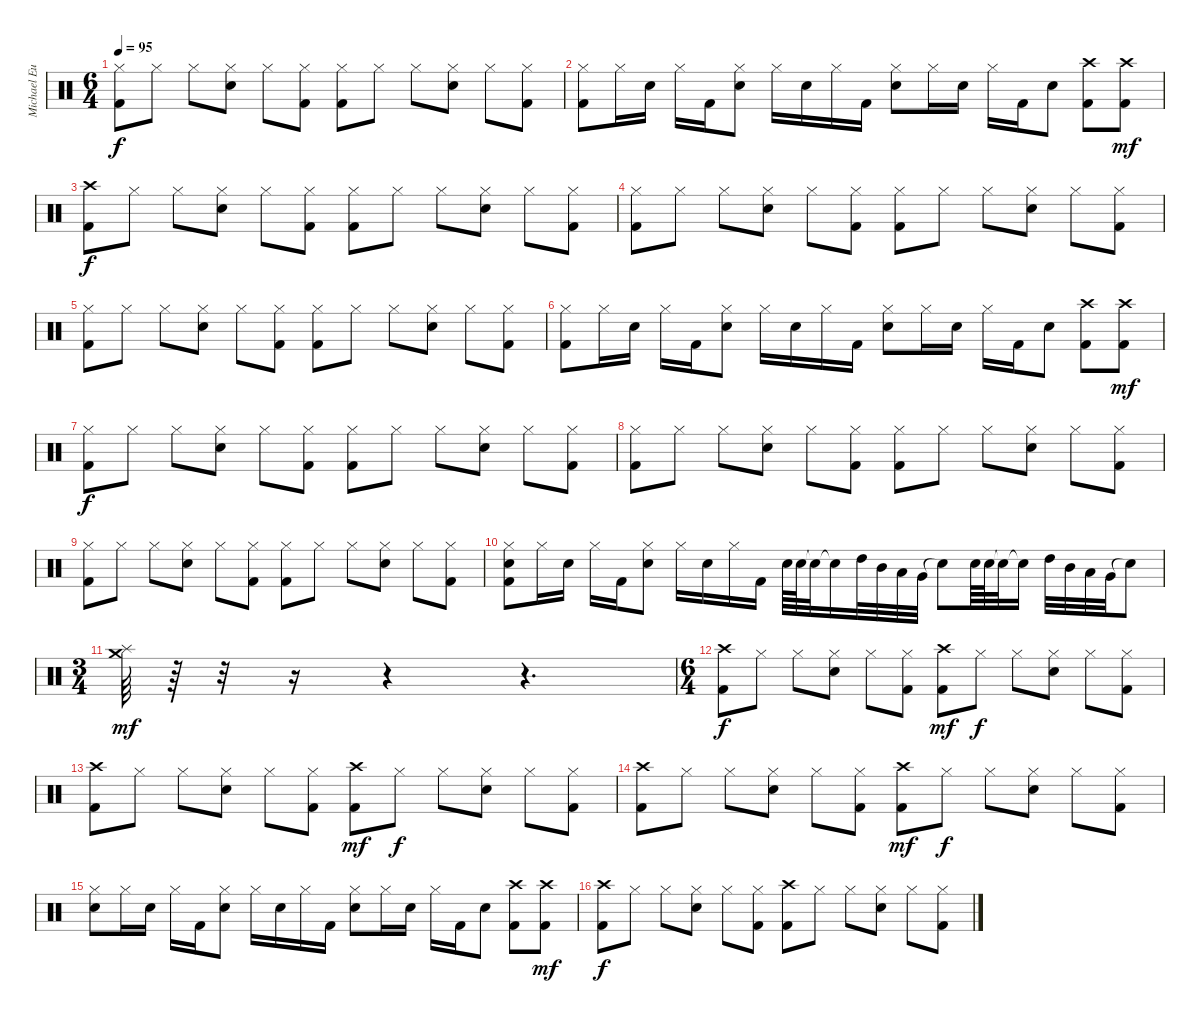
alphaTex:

\track ("Michael Eurich" "Michael Eu") {instrument percussion}
\staff {score}
\articulation defaults
\ts (6 4)
\tempo 95
\clef neutral
\ks c
("Kick (hit) 2" "Hi-Hat (closed)").8{dy f} "Hi-Hat (closed)".8 "Hi-Hat (closed)".8 ("Hi-Hat (closed)" "Snare (hit) 2").8 "Hi-Hat (closed)".8 ("Kick (hit) 2" "Hi-Hat (closed)").8 ("Kick (hit) 2" "Hi-Hat (closed)").8 "Hi-Hat (closed)".8 "Hi-Hat (closed)".8 ("Hi-Hat (closed)" "Snare (hit) 2").8 "Hi-Hat (closed)".8 ("Kick (hit) 2" "Hi-Hat (closed)").8 |
("Kick (hit) 2" "Hi-Hat (closed)").8 "Hi-Hat (closed)".16 "Snare (hit) 2".16 "Hi-Hat (closed)".16 "Kick (hit) 2".16 ("Hi-Hat (closed)" "Snare (hit) 2").8 "Hi-Hat (closed)".16 "Snare (hit) 2".16 "Hi-Hat (closed)".16 "Kick (hit) 2".16 ("Hi-Hat (closed)" "Snare (hit) 2").8 "Hi-Hat (closed)".16 "Snare (hit) 2".16 "Hi-Hat (closed)".16 "Kick (hit) 2".16 "Snare (hit) 2".8 ("Kick (hit) 2" "Crash high (hit)").8 ("Kick (hit) 2" "Crash high (hit)").8{dy mf} |
("Kick (hit) 2" "Crash high (hit)").8{dy f} "Hi-Hat (closed)".8 "Hi-Hat (closed)".8 ("Hi-Hat (closed)" "Snare (hit) 2").8 "Hi-Hat (closed)".8 ("Kick (hit) 2" "Hi-Hat (closed)").8 ("Kick (hit) 2" "Hi-Hat (closed)").8 "Hi-Hat (closed)".8 "Hi-Hat (closed)".8 ("Hi-Hat (closed)" "Snare (hit) 2").8 "Hi-Hat (closed)".8 ("Kick (hit) 2" "Hi-Hat (closed)").8 |
("Kick (hit) 2" "Hi-Hat (closed)").8 "Hi-Hat (closed)".8 "Hi-Hat (closed)".8 ("Hi-Hat (closed)" "Snare (hit) 2").8 "Hi-Hat (closed)".8 ("Kick (hit) 2" "Hi-Hat (closed)").8 ("Kick (hit) 2" "Hi-Hat (closed)").8 "Hi-Hat (closed)".8 "Hi-Hat (closed)".8 ("Hi-Hat (closed)" "Snare (hit) 2").8 "Hi-Hat (closed)".8 ("Kick (hit) 2" "Hi-Hat (closed)").8 |
("Kick (hit) 2" "Hi-Hat (closed)").8 "Hi-Hat (closed)".8 "Hi-Hat (closed)".8 ("Hi-Hat (closed)" "Snare (hit) 2").8 "Hi-Hat (closed)".8 ("Kick (hit) 2" "Hi-Hat (closed)").8 ("Kick (hit) 2" "Hi-Hat (closed)").8 "Hi-Hat (closed)".8 "Hi-Hat (closed)".8 ("Hi-Hat (closed)" "Snare (hit) 2").8 "Hi-Hat (closed)".8 ("Kick (hit) 2" "Hi-Hat (closed)").8 |
("Kick (hit) 2" "Hi-Hat (closed)").8 "Hi-Hat (closed)".16 "Snare (hit) 2".16 "Hi-Hat (closed)".16 "Kick (hit) 2".16 ("Hi-Hat (closed)" "Snare (hit) 2").8 "Hi-Hat (closed)".16 "Snare (hit) 2".16 "Hi-Hat (closed)".16 "Kick (hit) 2".16 ("Hi-Hat (closed)" "Snare (hit) 2").8 "Hi-Hat (closed)".16 "Snare (hit) 2".16 "Hi-Hat (closed)".16 "Kick (hit) 2".16 "Snare (hit) 2".8 ("Kick (hit) 2" "Crash high (hit)").8 ("Kick (hit) 2" "Crash high (hit)").8{dy mf} |
("Kick (hit) 2" "Hi-Hat (closed)").8{dy f} "Hi-Hat (closed)".8 "Hi-Hat (closed)".8 ("Hi-Hat (closed)" "Snare (hit) 2").8 "Hi-Hat (closed)".8 ("Kick (hit) 2" "Hi-Hat (closed)").8 ("Kick (hit) 2" "Hi-Hat (closed)").8 "Hi-Hat (closed)".8 "Hi-Hat (closed)".8 ("Hi-Hat (closed)" "Snare (hit) 2").8 "Hi-Hat (closed)".8 ("Kick (hit) 2" "Hi-Hat (closed)").8 |
("Kick (hit) 2" "Hi-Hat (closed)").8 "Hi-Hat (closed)".8 "Hi-Hat (closed)".8 ("Hi-Hat (closed)" "Snare (hit) 2").8 "Hi-Hat (closed)".8 ("Kick (hit) 2" "Hi-Hat (closed)").8 ("Kick (hit) 2" "Hi-Hat (closed)").8 "Hi-Hat (closed)".8 "Hi-Hat (closed)".8 ("Hi-Hat (closed)" "Snare (hit) 2").8 "Hi-Hat (closed)".8 ("Kick (hit) 2" "Hi-Hat (closed)").8 |
("Kick (hit) 2" "Hi-Hat (closed)").8 "Hi-Hat (closed)".8 "Hi-Hat (closed)".8 ("Hi-Hat (closed)" "Snare (hit) 2").8 "Hi-Hat (closed)".8 ("Kick (hit) 2" "Hi-Hat (closed)").8 ("Kick (hit) 2" "Hi-Hat (closed)").8 "Hi-Hat (closed)".8 "Hi-Hat (closed)".8 ("Hi-Hat (closed)" "Snare (hit) 2").8 "Hi-Hat (closed)".8 ("Kick (hit) 2" "Hi-Hat (closed)").8 |
("Kick (hit) 2" "Hi-Hat (closed)" "Snare (hit) 2").8 "Hi-Hat (closed)".16 "Snare (hit) 2".16 "Hi-Hat (closed)".16 "Kick (hit) 2".16 ("Hi-Hat (closed)" "Snare (hit) 2").8 "Hi-Hat (closed)".16 "Snare (hit) 2".16 "Hi-Hat (closed)".16 "Kick (hit) 2".16 "Snare (hit) 2".64 "Snare (hit) 2".64 "Snare (hit)"{t}.32 "Snare (hit)"{t}.16 "High Tom (hit)".32 "Mid Tom (hit)".32 "Low Tom (hit)".32 "Very Low Tom (hit)".32 "Snare (hit)"{t}.8 "Snare (hit) 2".64 "Snare (hit) 2".64 "Snare (hit)"{t}.32 "Snare (hit)"{t}.16 "High Tom (hit)".32 "Mid Tom (hit)".32 "Low Tom (hit)".32 "Very Low Tom (hit)".32 "Snare (hit)"{t}.8 |
\ts (3 4)
("Crash medium (hit)" "Splash (hit)").64{dy mf} r.64 r.32 r.16 r.4 r.4{d} |
\ts (6 4)
("Kick (hit) 2" "Crash high (hit)").8{dy f} "Hi-Hat (closed)".8 "Hi-Hat (closed)".8 ("Hi-Hat (closed)" "Snare (hit) 2").8 "Hi-Hat (closed)".8 ("Kick (hit) 2" "Hi-Hat (closed)").8 ("Kick (hit) 2" "Crash high (hit)").8{dy mf} "Hi-Hat (closed)".8{dy f} "Hi-Hat (closed)".8 ("Hi-Hat (closed)" "Snare (hit) 2").8 "Hi-Hat (closed)".8 ("Kick (hit) 2" "Hi-Hat (closed)").8 |
("Kick (hit) 2" "Crash high (hit)").8 "Hi-Hat (closed)".8 "Hi-Hat (closed)".8 ("Hi-Hat (closed)" "Snare (hit) 2").8 "Hi-Hat (closed)".8 ("Kick (hit) 2" "Hi-Hat (closed)").8 ("Kick (hit) 2" "Crash high (hit)").8{dy mf} "Hi-Hat (closed)".8{dy f} "Hi-Hat (closed)".8 ("Hi-Hat (closed)" "Snare (hit) 2").8 "Hi-Hat (closed)".8 ("Kick (hit) 2" "Hi-Hat (closed)").8 |
("Kick (hit) 2" "Crash high (hit)").8 "Hi-Hat (closed)".8 "Hi-Hat (closed)".8 ("Hi-Hat (closed)" "Snare (hit) 2").8 "Hi-Hat (closed)".8 ("Kick (hit) 2" "Hi-Hat (closed)").8 ("Kick (hit) 2" "Crash high (hit)").8{dy mf} "Hi-Hat (closed)".8{dy f} "Hi-Hat (closed)".8 ("Hi-Hat (closed)" "Snare (hit) 2").8 "Hi-Hat (closed)".8 ("Kick (hit) 2" "Hi-Hat (closed)").8 |
("Hi-Hat (closed)" "Snare (hit) 2").8 "Hi-Hat (closed)".16 "Snare (hit) 2".16 "Hi-Hat (closed)".16 "Kick (hit) 2".16 ("Hi-Hat (closed)" "Snare (hit) 2").8 "Hi-Hat (closed)".16 "Snare (hit) 2".16 "Hi-Hat (closed)".16 "Kick (hit) 2".16 ("Hi-Hat (closed)" "Snare (hit) 2").8 "Hi-Hat (closed)".16 "Snare (hit) 2".16 "Hi-Hat (closed)".16 "Kick (hit) 2".16 "Snare (hit) 2".8 ("Kick (hit) 2" "Crash high (hit)").8 ("Kick (hit) 2" "Crash high (hit)").8{dy mf} |
("Kick (hit) 2" "Crash high (hit)").8{dy f} "Hi-Hat (closed)".8 "Hi-Hat (closed)".8 ("Hi-Hat (closed)" "Snare (hit) 2").8 "Hi-Hat (closed)".8 ("Kick (hit) 2" "Hi-Hat (closed)").8 ("Kick (hit) 2" "Crash high (hit)").8 "Hi-Hat (closed)".8 "Hi-Hat (closed)".8 ("Hi-Hat (closed)" "Snare (hit) 2").8 "Hi-Hat (closed)".8 ("Kick (hit) 2" "Hi-Hat (closed)").8
